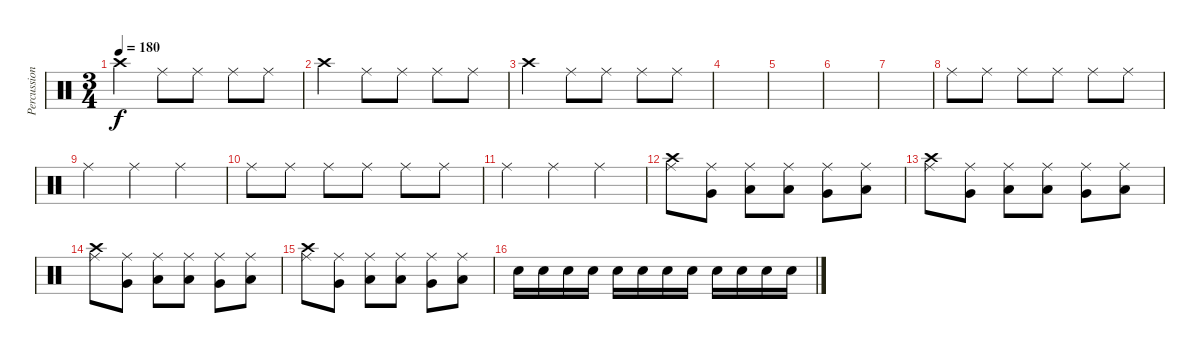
\track ("Percussion" "Percussion") {instrument percussion}
\staff {score}
\articulation defaults
\ts (3 4)
\tempo 180
\clef neutral
\ks c "Crash high (hit)".4{dy f} "Ride (middle)".8 "Ride (middle)".8 "Ride (middle)".8 "Ride (middle)".8
|
"Crash high (hit)".4 "Ride (middle)".8 "Ride (middle)".8 "Ride (middle)".8 "Ride (middle)".8 |
"Crash high (hit)".4 "Ride (middle)".8 "Ride (middle)".8 "Ride (middle)".8 "Ride (middle)".8 |
|
|
|
|
"Ride (middle)".8 "Ride (middle)".8 "Ride (middle)".8 "Ride (middle)".8 "Ride (middle)".8 "Ride (middle)".8 |
"Ride (middle)".4 "Ride (middle)".4 "Ride (middle)".4 |
"Ride (middle)".8 "Ride (middle)".8 "Ride (middle)".8 "Ride (middle)".8 "Ride (middle)".8 "Ride (middle)".8 |
"Ride (middle)".4 "Ride (middle)".4 "Ride (middle)".4 |
("Ride (middle)" "Crash high (hit)").8 ("Ride (middle)" "Very Low Tom (hit)").8 ("Ride (middle)" "Low Tom (hit)").8 ("Ride (middle)" "Low Floor Tom (hit)").8 ("Ride (middle)" "Very Low Tom (hit)").8 ("Ride (middle)" "Low Tom (hit)").8 |
("Ride (middle)" "Crash high (hit)").8 ("Ride (middle)" "Very Low Tom (hit)").8 ("Ride (middle)" "Low Tom (hit)").8 ("Ride (middle)" "Low Floor Tom (hit)").8 ("Ride (middle)" "Very Low Tom (hit)").8 ("Ride (middle)" "Low Tom (hit)").8 |
("Ride (middle)" "Crash high (hit)").8 ("Ride (middle)" "Very Low Tom (hit)").8 ("Ride (middle)" "Low Tom (hit)").8 ("Ride (middle)" "Low Floor Tom (hit)").8 ("Ride (middle)" "Very Low Tom (hit)").8 ("Ride (middle)" "Low Tom (hit)").8 |
("Ride (middle)" "Crash high (hit)").8 ("Ride (middle)" "Very Low Tom (hit)").8 ("Ride (middle)" "Low Tom (hit)").8 ("Ride (middle)" "Low Floor Tom (hit)").8 ("Ride (middle)" "Very Low Tom (hit)").8 ("Ride (middle)" "Low Tom (hit)").8 |
"Snare (hit) 2".16 "Snare (hit) 2".16 "Snare (hit) 2".16 "Snare (hit) 2".16 "Snare (hit) 2".16 "Snare (hit) 2".16 "Snare (hit) 2".16 "Snare (hit) 2".16 "Snare (hit) 2".16 "Snare (hit) 2".16 "Snare (hit) 2".16 "Snare (hit) 2".16
